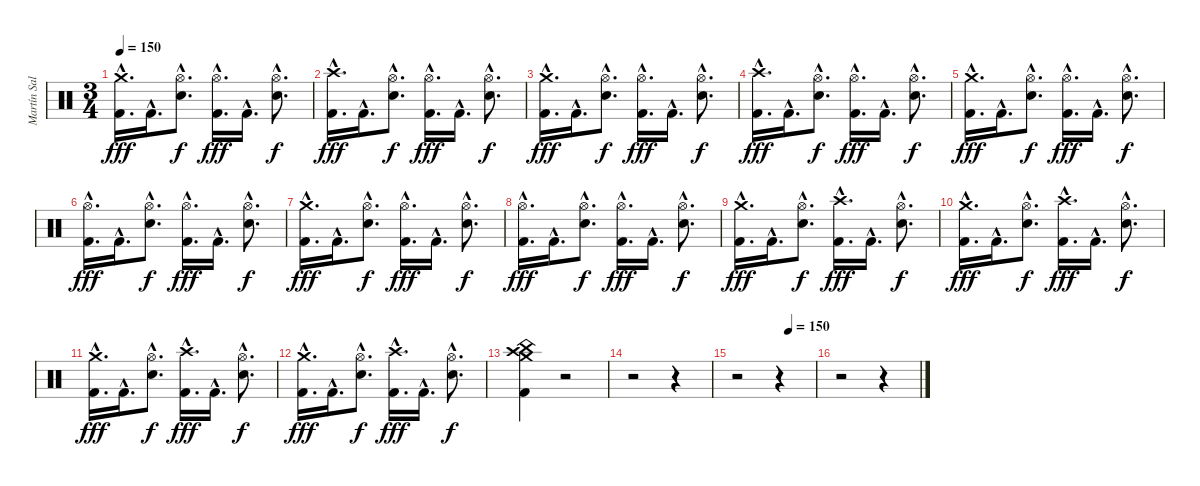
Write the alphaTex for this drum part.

\track ("Martín Salariato" "Martín Sal") {instrument percussion}
\staff {score}
\articulation defaults
\ts (3 4)
\tempo 150
\clef neutral
\ks c
("Crash medium (hit)"{hac} "Kick (hit) 2"{hac}).16{d dy fff} "Kick (hit) 2"{hac}.16{d} ("Hi-Hat (open)"{hac} "Snare (hit) 2"{hac}).8{d dy f} ("Hi-Hat (open)"{hac} "Kick (hit) 2"{hac}).16{d dy fff} "Kick (hit) 2"{hac}.16{d} ("Hi-Hat (open)"{hac} "Snare (hit) 2"{hac}).8{d dy f} |
("Crash high (hit)"{hac} "Kick (hit) 2"{hac}).16{d dy fff} "Kick (hit) 2"{hac}.16{d} ("Hi-Hat (open)"{hac} "Snare (hit) 2"{hac}).8{d dy f} ("Hi-Hat (open)"{hac} "Kick (hit) 2"{hac}).16{d dy fff} "Kick (hit) 2"{hac}.16{d} ("Hi-Hat (open)"{hac} "Snare (hit) 2"{hac}).8{d dy f} |
("Crash medium (hit)"{hac} "Kick (hit) 2"{hac}).16{d dy fff} "Kick (hit) 2"{hac}.16{d} ("Hi-Hat (open)"{hac} "Snare (hit) 2"{hac}).8{d dy f} ("Hi-Hat (open)"{hac} "Kick (hit) 2"{hac}).16{d dy fff} "Kick (hit) 2"{hac}.16{d} ("Hi-Hat (open)"{hac} "Snare (hit) 2"{hac}).8{d dy f} |
("Crash high (hit)"{hac} "Kick (hit) 2"{hac}).16{d dy fff} "Kick (hit) 2"{hac}.16{d} ("Hi-Hat (open)"{hac} "Snare (hit) 2"{hac}).8{d dy f} ("Hi-Hat (open)"{hac} "Kick (hit) 2"{hac}).16{d dy fff} "Kick (hit) 2"{hac}.16{d} ("Hi-Hat (open)"{hac} "Snare (hit) 2"{hac}).8{d dy f} |
("Crash medium (hit)"{hac} "Kick (hit) 2"{hac}).16{d dy fff} "Kick (hit) 2"{hac}.16{d} ("Hi-Hat (open)"{hac} "Snare (hit) 2"{hac}).8{d dy f} ("Hi-Hat (open)"{hac} "Kick (hit) 2"{hac}).16{d dy fff} "Kick (hit) 2"{hac}.16{d} ("Hi-Hat (open)"{hac} "Snare (hit) 2"{hac}).8{d dy f} |
("Hi-Hat (open)"{hac} "Kick (hit) 2"{hac}).16{d dy fff} "Kick (hit) 2"{hac}.16{d} ("Hi-Hat (open)"{hac} "Snare (hit) 2"{hac}).8{d dy f} ("Hi-Hat (open)"{hac} "Kick (hit) 2"{hac}).16{d dy fff} "Kick (hit) 2"{hac}.16{d} ("Hi-Hat (open)"{hac} "Snare (hit) 2"{hac}).8{d dy f} |
("Crash medium (hit)"{hac} "Kick (hit) 2"{hac}).16{d dy fff} "Kick (hit) 2"{hac}.16{d} ("Hi-Hat (open)"{hac} "Snare (hit) 2"{hac}).8{d dy f} ("Hi-Hat (open)"{hac} "Kick (hit) 2"{hac}).16{d dy fff} "Kick (hit) 2"{hac}.16{d} ("Hi-Hat (open)"{hac} "Snare (hit) 2"{hac}).8{d dy f} |
("Hi-Hat (open)"{hac} "Kick (hit) 2"{hac}).16{d dy fff} "Kick (hit) 2"{hac}.16{d} ("Hi-Hat (open)"{hac} "Snare (hit) 2"{hac}).8{d dy f} ("Hi-Hat (open)"{hac} "Kick (hit) 2"{hac}).16{d dy fff} "Kick (hit) 2"{hac}.16{d} ("Hi-Hat (open)"{hac} "Snare (hit) 2"{hac}).8{d dy f} |
("Crash medium (hit)"{hac} "Kick (hit) 2"{hac}).16{d dy fff} "Kick (hit) 2"{hac}.16{d} ("Hi-Hat (open)"{hac} "Snare (hit) 2"{hac}).8{d dy f} ("Crash high (hit)"{hac} "Kick (hit) 2"{hac}).16{d dy fff} "Kick (hit) 2"{hac}.16{d} ("Hi-Hat (open)"{hac} "Snare (hit) 2"{hac}).8{d dy f} |
("Crash medium (hit)"{hac} "Kick (hit) 2"{hac}).16{d dy fff} "Kick (hit) 2"{hac}.16{d} ("Hi-Hat (open)"{hac} "Snare (hit) 2"{hac}).8{d dy f} ("Crash high (hit)"{hac} "Kick (hit) 2"{hac}).16{d dy fff} "Kick (hit) 2"{hac}.16{d} ("Hi-Hat (open)"{hac} "Snare (hit) 2"{hac}).8{d dy f} |
("Crash medium (hit)"{hac} "Kick (hit) 2"{hac}).16{d dy fff} "Kick (hit) 2"{hac}.16{d} ("Hi-Hat (open)"{hac} "Snare (hit) 2"{hac}).8{d dy f} ("Crash high (hit)"{hac} "Kick (hit) 2"{hac}).16{d dy fff} "Kick (hit) 2"{hac}.16{d} ("Hi-Hat (open)"{hac} "Snare (hit) 2"{hac}).8{d dy f} |
("Crash medium (hit)"{hac} "Kick (hit) 2"{hac}).16{d dy fff} "Kick (hit) 2"{hac}.16{d} ("Hi-Hat (open)"{hac} "Snare (hit) 2"{hac}).8{d dy f} ("Crash high (hit)"{hac} "Kick (hit) 2"{hac}).16{d dy fff} "Kick (hit) 2"{hac}.16{d} ("Hi-Hat (open)"{hac} "Snare (hit) 2"{hac}).8{d dy f} |
("Crash medium (hit)" "Crash high (hit)" "China (hit)" "Kick (hit) 2").4 r.2 |
r.2 r.4 |
\tempo (150 0.6666666666666666)
r.2 r.4 |
r.2 r.4
